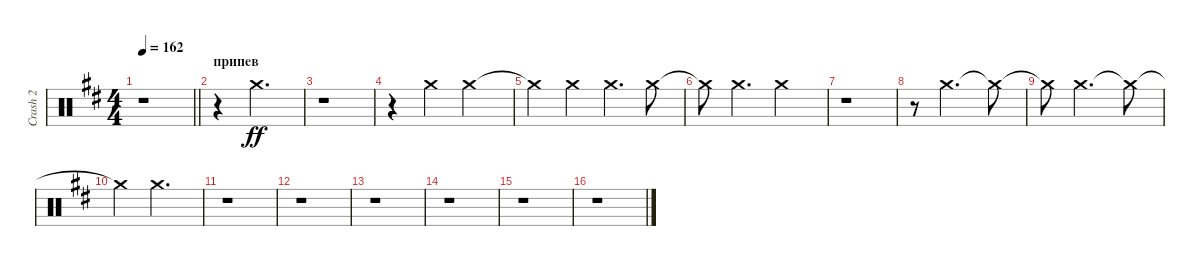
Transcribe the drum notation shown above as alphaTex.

\track ("Сrash 2" "Сrash 2") {instrument percussion}
\staff {score}
\articulation defaults
\ts (4 4)
\tempo 162
\clef neutral
\barLineRight lightlight
\ks bminor
r.1{dy ff} |
\section ("" "припев")
r.4 "Crash medium (hit)".2{d} |
r.1 |
r.4 "Crash medium (hit)".4 "Crash medium (hit)".2 |
"Crash medium (hit)"{t}.4 "Crash medium (hit)".4 "Crash medium (hit)".4{d} "Crash medium (hit)".8 |
"Crash medium (hit)"{t}.8 "Crash medium (hit)".4{d} "Crash medium (hit)".2 |
r.1 |
r.8 "Crash medium (hit)".2{d} "Crash medium (hit)"{t}.8 |
"Crash medium (hit)"{t}.8 "Crash medium (hit)".2{d} "Crash medium (hit)"{t}.8 |
"Crash medium (hit)"{t}.4 "Crash medium (hit)".2{d} |
r.1 |
r.1 |
r.1 |
r.1 |
r.1 |
r.1
